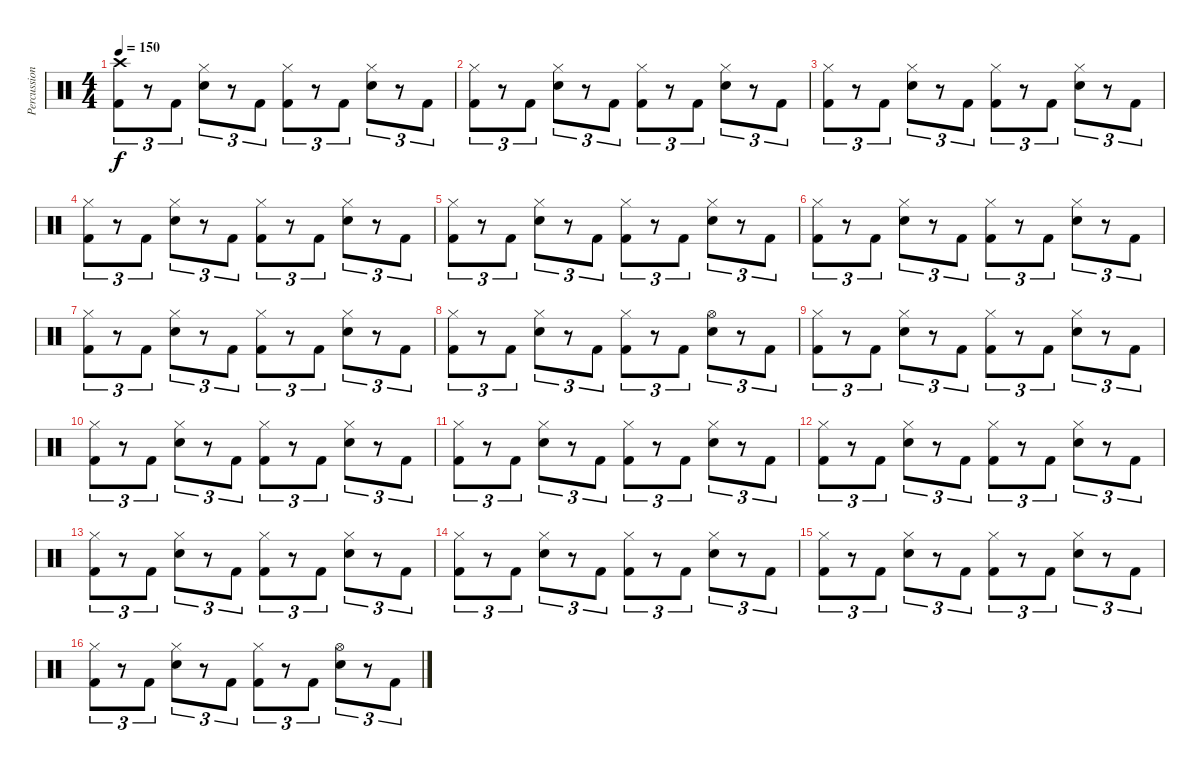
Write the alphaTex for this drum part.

\track ("Percussions" "Percussion") {instrument percussion}
\staff {score}
\articulation defaults
\ts (4 4)
\tempo 150
\clef neutral
\ks c
("Crash high (hit)" "Kick (hit) 2").8{tu (3 2) dy f} r.8{tu (3 2)} "Kick (hit) 2".8{tu (3 2)} ("Hi-Hat (closed)" "Snare (hit) 2").8{tu (3 2)} r.8{tu (3 2)} "Kick (hit) 2".8{tu (3 2)} ("Hi-Hat (closed)" "Kick (hit) 2").8{tu (3 2)} r.8{tu (3 2)} "Kick (hit) 2".8{tu (3 2)} ("Hi-Hat (closed)" "Snare (hit) 2").8{tu (3 2)} r.8{tu (3 2)} "Kick (hit) 2".8{tu (3 2)} |
("Hi-Hat (closed)" "Kick (hit) 2").8{tu (3 2)} r.8{tu (3 2)} "Kick (hit) 2".8{tu (3 2)} ("Hi-Hat (closed)" "Snare (hit) 2").8{tu (3 2)} r.8{tu (3 2)} "Kick (hit) 2".8{tu (3 2)} ("Hi-Hat (closed)" "Kick (hit) 2").8{tu (3 2)} r.8{tu (3 2)} "Kick (hit) 2".8{tu (3 2)} ("Hi-Hat (closed)" "Snare (hit) 2").8{tu (3 2)} r.8{tu (3 2)} "Kick (hit) 2".8{tu (3 2)} |
("Hi-Hat (closed)" "Kick (hit) 2").8{tu (3 2)} r.8{tu (3 2)} "Kick (hit) 2".8{tu (3 2)} ("Hi-Hat (closed)" "Snare (hit) 2").8{tu (3 2)} r.8{tu (3 2)} "Kick (hit) 2".8{tu (3 2)} ("Hi-Hat (closed)" "Kick (hit) 2").8{tu (3 2)} r.8{tu (3 2)} "Kick (hit) 2".8{tu (3 2)} ("Hi-Hat (closed)" "Snare (hit) 2").8{tu (3 2)} r.8{tu (3 2)} "Kick (hit) 2".8{tu (3 2)} |
("Hi-Hat (closed)" "Kick (hit) 2").8{tu (3 2)} r.8{tu (3 2)} "Kick (hit) 2".8{tu (3 2)} ("Hi-Hat (closed)" "Snare (hit) 2").8{tu (3 2)} r.8{tu (3 2)} "Kick (hit) 2".8{tu (3 2)} ("Hi-Hat (closed)" "Kick (hit) 2").8{tu (3 2)} r.8{tu (3 2)} "Kick (hit) 2".8{tu (3 2)} ("Hi-Hat (closed)" "Snare (hit) 2").8{tu (3 2)} r.8{tu (3 2)} "Kick (hit) 2".8{tu (3 2)} |
("Hi-Hat (closed)" "Kick (hit) 2").8{tu (3 2)} r.8{tu (3 2)} "Kick (hit) 2".8{tu (3 2)} ("Hi-Hat (closed)" "Snare (hit) 2").8{tu (3 2)} r.8{tu (3 2)} "Kick (hit) 2".8{tu (3 2)} ("Hi-Hat (closed)" "Kick (hit) 2").8{tu (3 2)} r.8{tu (3 2)} "Kick (hit) 2".8{tu (3 2)} ("Hi-Hat (closed)" "Snare (hit) 2").8{tu (3 2)} r.8{tu (3 2)} "Kick (hit) 2".8{tu (3 2)} |
("Hi-Hat (closed)" "Kick (hit) 2").8{tu (3 2)} r.8{tu (3 2)} "Kick (hit) 2".8{tu (3 2)} ("Hi-Hat (closed)" "Snare (hit) 2").8{tu (3 2)} r.8{tu (3 2)} "Kick (hit) 2".8{tu (3 2)} ("Hi-Hat (closed)" "Kick (hit) 2").8{tu (3 2)} r.8{tu (3 2)} "Kick (hit) 2".8{tu (3 2)} ("Hi-Hat (closed)" "Snare (hit) 2").8{tu (3 2)} r.8{tu (3 2)} "Kick (hit) 2".8{tu (3 2)} |
("Hi-Hat (closed)" "Kick (hit) 2").8{tu (3 2)} r.8{tu (3 2)} "Kick (hit) 2".8{tu (3 2)} ("Hi-Hat (closed)" "Snare (hit) 2").8{tu (3 2)} r.8{tu (3 2)} "Kick (hit) 2".8{tu (3 2)} ("Hi-Hat (closed)" "Kick (hit) 2").8{tu (3 2)} r.8{tu (3 2)} "Kick (hit) 2".8{tu (3 2)} ("Hi-Hat (closed)" "Snare (hit) 2").8{tu (3 2)} r.8{tu (3 2)} "Kick (hit) 2".8{tu (3 2)} |
("Hi-Hat (closed)" "Kick (hit) 2").8{tu (3 2)} r.8{tu (3 2)} "Kick (hit) 2".8{tu (3 2)} ("Hi-Hat (closed)" "Snare (hit) 2").8{tu (3 2)} r.8{tu (3 2)} "Kick (hit) 2".8{tu (3 2)} ("Hi-Hat (closed)" "Kick (hit) 2").8{tu (3 2)} r.8{tu (3 2)} "Kick (hit) 2".8{tu (3 2)} ("Hi-Hat (open)" "Snare (hit) 2").8{tu (3 2)} r.8{tu (3 2)} "Kick (hit) 2".8{tu (3 2)} |
("Hi-Hat (closed)" "Kick (hit) 2").8{tu (3 2)} r.8{tu (3 2)} "Kick (hit) 2".8{tu (3 2)} ("Hi-Hat (closed)" "Snare (hit) 2").8{tu (3 2)} r.8{tu (3 2)} "Kick (hit) 2".8{tu (3 2)} ("Hi-Hat (closed)" "Kick (hit) 2").8{tu (3 2)} r.8{tu (3 2)} "Kick (hit) 2".8{tu (3 2)} ("Hi-Hat (closed)" "Snare (hit) 2").8{tu (3 2)} r.8{tu (3 2)} "Kick (hit) 2".8{tu (3 2)} |
("Hi-Hat (closed)" "Kick (hit) 2").8{tu (3 2)} r.8{tu (3 2)} "Kick (hit) 2".8{tu (3 2)} ("Hi-Hat (closed)" "Snare (hit) 2").8{tu (3 2)} r.8{tu (3 2)} "Kick (hit) 2".8{tu (3 2)} ("Hi-Hat (closed)" "Kick (hit) 2").8{tu (3 2)} r.8{tu (3 2)} "Kick (hit) 2".8{tu (3 2)} ("Hi-Hat (closed)" "Snare (hit) 2").8{tu (3 2)} r.8{tu (3 2)} "Kick (hit) 2".8{tu (3 2)} |
("Hi-Hat (closed)" "Kick (hit) 2").8{tu (3 2)} r.8{tu (3 2)} "Kick (hit) 2".8{tu (3 2)} ("Hi-Hat (closed)" "Snare (hit) 2").8{tu (3 2)} r.8{tu (3 2)} "Kick (hit) 2".8{tu (3 2)} ("Hi-Hat (closed)" "Kick (hit) 2").8{tu (3 2)} r.8{tu (3 2)} "Kick (hit) 2".8{tu (3 2)} ("Hi-Hat (closed)" "Snare (hit) 2").8{tu (3 2)} r.8{tu (3 2)} "Kick (hit) 2".8{tu (3 2)} |
("Hi-Hat (closed)" "Kick (hit) 2").8{tu (3 2)} r.8{tu (3 2)} "Kick (hit) 2".8{tu (3 2)} ("Hi-Hat (closed)" "Snare (hit) 2").8{tu (3 2)} r.8{tu (3 2)} "Kick (hit) 2".8{tu (3 2)} ("Hi-Hat (closed)" "Kick (hit) 2").8{tu (3 2)} r.8{tu (3 2)} "Kick (hit) 2".8{tu (3 2)} ("Hi-Hat (closed)" "Snare (hit) 2").8{tu (3 2)} r.8{tu (3 2)} "Kick (hit) 2".8{tu (3 2)} |
("Hi-Hat (closed)" "Kick (hit) 2").8{tu (3 2)} r.8{tu (3 2)} "Kick (hit) 2".8{tu (3 2)} ("Hi-Hat (closed)" "Snare (hit) 2").8{tu (3 2)} r.8{tu (3 2)} "Kick (hit) 2".8{tu (3 2)} ("Hi-Hat (closed)" "Kick (hit) 2").8{tu (3 2)} r.8{tu (3 2)} "Kick (hit) 2".8{tu (3 2)} ("Hi-Hat (closed)" "Snare (hit) 2").8{tu (3 2)} r.8{tu (3 2)} "Kick (hit) 2".8{tu (3 2)} |
("Hi-Hat (closed)" "Kick (hit) 2").8{tu (3 2)} r.8{tu (3 2)} "Kick (hit) 2".8{tu (3 2)} ("Hi-Hat (closed)" "Snare (hit) 2").8{tu (3 2)} r.8{tu (3 2)} "Kick (hit) 2".8{tu (3 2)} ("Hi-Hat (closed)" "Kick (hit) 2").8{tu (3 2)} r.8{tu (3 2)} "Kick (hit) 2".8{tu (3 2)} ("Hi-Hat (closed)" "Snare (hit) 2").8{tu (3 2)} r.8{tu (3 2)} "Kick (hit) 2".8{tu (3 2)} |
("Hi-Hat (closed)" "Kick (hit) 2").8{tu (3 2)} r.8{tu (3 2)} "Kick (hit) 2".8{tu (3 2)} ("Hi-Hat (closed)" "Snare (hit) 2").8{tu (3 2)} r.8{tu (3 2)} "Kick (hit) 2".8{tu (3 2)} ("Hi-Hat (closed)" "Kick (hit) 2").8{tu (3 2)} r.8{tu (3 2)} "Kick (hit) 2".8{tu (3 2)} ("Hi-Hat (closed)" "Snare (hit) 2").8{tu (3 2)} r.8{tu (3 2)} "Kick (hit) 2".8{tu (3 2)} |
("Hi-Hat (closed)" "Kick (hit) 2").8{tu (3 2)} r.8{tu (3 2)} "Kick (hit) 2".8{tu (3 2)} ("Hi-Hat (closed)" "Snare (hit) 2").8{tu (3 2)} r.8{tu (3 2)} "Kick (hit) 2".8{tu (3 2)} ("Hi-Hat (closed)" "Kick (hit) 2").8{tu (3 2)} r.8{tu (3 2)} "Kick (hit) 2".8{tu (3 2)} ("Hi-Hat (open)" "Snare (hit) 2").8{tu (3 2)} r.8{tu (3 2)} "Kick (hit) 2".8{tu (3 2)}
